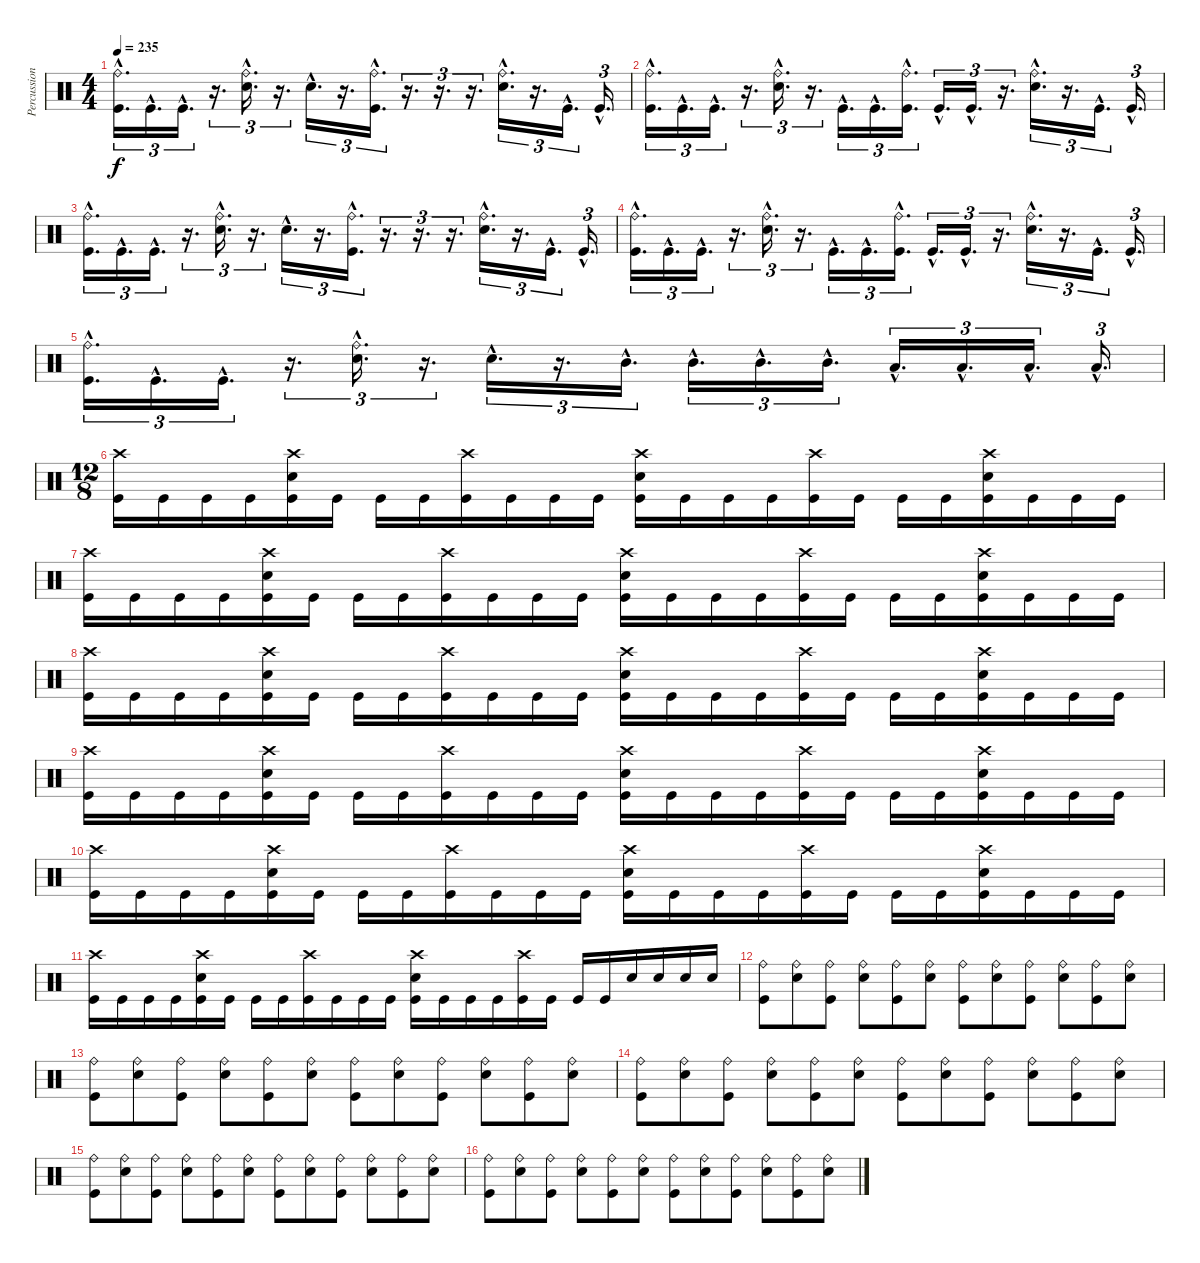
\track ("Percussion" "Percussion") {instrument percussion}
\staff {score}
\articulation defaults
\ts (4 4)
\tempo 235
\clef neutral
\ks c
("Ride (bell)"{hac} "Kick (hit)"{hac}).16{d tu (3 2) dy f} "Kick (hit)"{hac}.16{d tu (3 2)} "Kick (hit)"{hac}.16{d tu (3 2)} r.16{d tu (3 2)} ("Ride (bell)"{hac} "Snare (hit) 2"{hac}).16{d tu (3 2)} r.16{d tu (3 2)} "Snare (hit) 2"{hac}.16{d tu (3 2)} r.16{d tu (3 2)} ("Ride (bell)"{hac} "Kick (hit)"{hac}).16{d tu (3 2)} r.16{d tu (3 2)} r.16{d tu (3 2)} r.16{d tu (3 2)} ("Ride (bell)"{hac} "Snare (hit) 2"{hac}).16{d tu (3 2)} r.16{d tu (3 2)} "Kick (hit)"{hac}.16{d tu (3 2)} "Kick (hit)"{hac}.16{d tu (3 2)} |
("Ride (bell)"{hac} "Kick (hit)"{hac}).16{d tu (3 2)} "Kick (hit)"{hac}.16{d tu (3 2)} "Kick (hit)"{hac}.16{d tu (3 2)} r.16{d tu (3 2)} ("Ride (bell)"{hac} "Snare (hit) 2"{hac}).16{d tu (3 2)} r.16{d tu (3 2)} "Kick (hit)"{hac}.16{d tu (3 2)} "Kick (hit)"{hac}.16{d tu (3 2)} ("Ride (bell)"{hac} "Kick (hit)"{hac}).16{d tu (3 2)} "Kick (hit)"{hac}.16{d tu (3 2)} "Kick (hit)"{hac}.16{d tu (3 2)} r.16{d tu (3 2)} ("Ride (bell)"{hac} "Snare (hit) 2"{hac}).16{d tu (3 2)} r.16{d tu (3 2)} "Kick (hit)"{hac}.16{d tu (3 2)} "Kick (hit)"{hac}.16{d tu (3 2)} |
("Ride (bell)"{hac} "Kick (hit)"{hac}).16{d tu (3 2)} "Kick (hit)"{hac}.16{d tu (3 2)} "Kick (hit)"{hac}.16{d tu (3 2)} r.16{d tu (3 2)} ("Ride (bell)"{hac} "Snare (hit) 2"{hac}).16{d tu (3 2)} r.16{d tu (3 2)} "Snare (hit) 2"{hac}.16{d tu (3 2)} r.16{d tu (3 2)} ("Ride (bell)"{hac} "Kick (hit)"{hac}).16{d tu (3 2)} r.16{d tu (3 2)} r.16{d tu (3 2)} r.16{d tu (3 2)} ("Ride (bell)"{hac} "Snare (hit) 2"{hac}).16{d tu (3 2)} r.16{d tu (3 2)} "Kick (hit)"{hac}.16{d tu (3 2)} "Kick (hit)"{hac}.16{d tu (3 2)} |
("Ride (bell)"{hac} "Kick (hit)"{hac}).16{d tu (3 2)} "Kick (hit)"{hac}.16{d tu (3 2)} "Kick (hit)"{hac}.16{d tu (3 2)} r.16{d tu (3 2)} ("Ride (bell)"{hac} "Snare (hit) 2"{hac}).16{d tu (3 2)} r.16{d tu (3 2)} "Kick (hit)"{hac}.16{d tu (3 2)} "Kick (hit)"{hac}.16{d tu (3 2)} ("Ride (bell)"{hac} "Kick (hit)"{hac}).16{d tu (3 2)} "Kick (hit)"{hac}.16{d tu (3 2)} "Kick (hit)"{hac}.16{d tu (3 2)} r.16{d tu (3 2)} ("Ride (bell)"{hac} "Snare (hit) 2"{hac}).16{d tu (3 2)} r.16{d tu (3 2)} "Kick (hit)"{hac}.16{d tu (3 2)} "Kick (hit)"{hac}.16{d tu (3 2)} |
("Ride (bell)"{hac} "Kick (hit)"{hac}).16{d tu (3 2)} "Kick (hit)"{hac}.16{d tu (3 2)} "Kick (hit)"{hac}.16{d tu (3 2)} r.16{d tu (3 2)} ("Ride (bell)"{hac} "Snare (hit) 2"{hac}).16{d tu (3 2)} r.16{d tu (3 2)} "Snare (hit) 2"{hac}.16{d tu (3 2)} r.16{d tu (3 2)} "Mid Tom (hit)"{hac}.16{d tu (3 2)} "Mid Tom (hit)"{hac}.16{d tu (3 2)} "Mid Tom (hit)"{hac}.16{d tu (3 2)} "Mid Tom (hit)"{hac}.16{d tu (3 2)} "Low Tom (hit)"{hac}.16{d tu (3 2)} "Low Tom (hit)"{hac}.16{d tu (3 2)} "Low Tom (hit)"{hac}.16{d tu (3 2)} "Low Tom (hit)"{hac}.16{d tu (3 2)} |
\ts (12 8)
("Crash high (hit)" "Kick (hit)").16 "Kick (hit)".16 "Kick (hit)".16 "Kick (hit)".16 ("Crash high (hit)" "Snare (hit) 2" "Kick (hit)").16 "Kick (hit)".16 "Kick (hit)".16 "Kick (hit)".16 ("Crash high (hit)" "Kick (hit)").16 "Kick (hit)".16 "Kick (hit)".16 "Kick (hit)".16 ("Crash high (hit)" "Snare (hit) 2" "Kick (hit)").16 "Kick (hit)".16 "Kick (hit)".16 "Kick (hit)".16 ("Crash high (hit)" "Kick (hit)").16 "Kick (hit)".16 "Kick (hit)".16 "Kick (hit)".16 ("Crash high (hit)" "Snare (hit) 2" "Kick (hit)").16 "Kick (hit)".16 "Kick (hit)".16 "Kick (hit)".16 |
("Crash high (hit)" "Kick (hit)").16 "Kick (hit)".16 "Kick (hit)".16 "Kick (hit)".16 ("Crash high (hit)" "Snare (hit) 2" "Kick (hit)").16 "Kick (hit)".16 "Kick (hit)".16 "Kick (hit)".16 ("Crash high (hit)" "Kick (hit)").16 "Kick (hit)".16 "Kick (hit)".16 "Kick (hit)".16 ("Crash high (hit)" "Snare (hit) 2" "Kick (hit)").16 "Kick (hit)".16 "Kick (hit)".16 "Kick (hit)".16 ("Crash high (hit)" "Kick (hit)").16 "Kick (hit)".16 "Kick (hit)".16 "Kick (hit)".16 ("Crash high (hit)" "Snare (hit) 2" "Kick (hit)").16 "Kick (hit)".16 "Kick (hit)".16 "Kick (hit)".16 |
("Crash high (hit)" "Kick (hit)").16 "Kick (hit)".16 "Kick (hit)".16 "Kick (hit)".16 ("Crash high (hit)" "Snare (hit) 2" "Kick (hit)").16 "Kick (hit)".16 "Kick (hit)".16 "Kick (hit)".16 ("Crash high (hit)" "Kick (hit)").16 "Kick (hit)".16 "Kick (hit)".16 "Kick (hit)".16 ("Crash high (hit)" "Snare (hit) 2" "Kick (hit)").16 "Kick (hit)".16 "Kick (hit)".16 "Kick (hit)".16 ("Crash high (hit)" "Kick (hit)").16 "Kick (hit)".16 "Kick (hit)".16 "Kick (hit)".16 ("Crash high (hit)" "Snare (hit) 2" "Kick (hit)").16 "Kick (hit)".16 "Kick (hit)".16 "Kick (hit)".16 |
("Crash high (hit)" "Kick (hit)").16 "Kick (hit)".16 "Kick (hit)".16 "Kick (hit)".16 ("Crash high (hit)" "Snare (hit) 2" "Kick (hit)").16 "Kick (hit)".16 "Kick (hit)".16 "Kick (hit)".16 ("Crash high (hit)" "Kick (hit)").16 "Kick (hit)".16 "Kick (hit)".16 "Kick (hit)".16 ("Crash high (hit)" "Snare (hit) 2" "Kick (hit)").16 "Kick (hit)".16 "Kick (hit)".16 "Kick (hit)".16 ("Crash high (hit)" "Kick (hit)").16 "Kick (hit)".16 "Kick (hit)".16 "Kick (hit)".16 ("Crash high (hit)" "Snare (hit) 2" "Kick (hit)").16 "Kick (hit)".16 "Kick (hit)".16 "Kick (hit)".16 |
("Crash high (hit)" "Kick (hit)").16 "Kick (hit)".16 "Kick (hit)".16 "Kick (hit)".16 ("Crash high (hit)" "Snare (hit) 2" "Kick (hit)").16 "Kick (hit)".16 "Kick (hit)".16 "Kick (hit)".16 ("Crash high (hit)" "Kick (hit)").16 "Kick (hit)".16 "Kick (hit)".16 "Kick (hit)".16 ("Crash high (hit)" "Snare (hit) 2" "Kick (hit)").16 "Kick (hit)".16 "Kick (hit)".16 "Kick (hit)".16 ("Crash high (hit)" "Kick (hit)").16 "Kick (hit)".16 "Kick (hit)".16 "Kick (hit)".16 ("Crash high (hit)" "Snare (hit) 2" "Kick (hit)").16 "Kick (hit)".16 "Kick (hit)".16 "Kick (hit)".16 |
("Crash high (hit)" "Kick (hit)").16 "Kick (hit)".16 "Kick (hit)".16 "Kick (hit)".16 ("Crash high (hit)" "Snare (hit) 2" "Kick (hit)").16 "Kick (hit)".16 "Kick (hit)".16 "Kick (hit)".16 ("Crash high (hit)" "Kick (hit)").16 "Kick (hit)".16 "Kick (hit)".16 "Kick (hit)".16 ("Crash high (hit)" "Snare (hit) 2" "Kick (hit)").16 "Kick (hit)".16 "Kick (hit)".16 "Kick (hit)".16 ("Crash high (hit)" "Kick (hit)").16 "Kick (hit)".16 "Kick (hit)".16 "Kick (hit)".16 "Snare (hit) 2".16 "Snare (hit) 2".16 "Snare (hit) 2".16 "Snare (hit) 2".16 |
("Ride (bell)" "Kick (hit)").8 ("Ride (bell)" "Snare (hit) 2").8 ("Ride (bell)" "Kick (hit)").8 ("Ride (bell)" "Snare (hit) 2").8 ("Ride (bell)" "Kick (hit)").8 ("Ride (bell)" "Snare (hit) 2").8 ("Ride (bell)" "Kick (hit)").8 ("Ride (bell)" "Snare (hit) 2").8 ("Ride (bell)" "Kick (hit)").8 ("Ride (bell)" "Snare (hit) 2").8 ("Ride (bell)" "Kick (hit)").8 ("Ride (bell)" "Snare (hit) 2").8 |
("Ride (bell)" "Kick (hit)").8 ("Ride (bell)" "Snare (hit) 2").8 ("Ride (bell)" "Kick (hit)").8 ("Ride (bell)" "Snare (hit) 2").8 ("Ride (bell)" "Kick (hit)").8 ("Ride (bell)" "Snare (hit) 2").8 ("Ride (bell)" "Kick (hit)").8 ("Ride (bell)" "Snare (hit) 2").8 ("Ride (bell)" "Kick (hit)").8 ("Ride (bell)" "Snare (hit) 2").8 ("Ride (bell)" "Kick (hit)").8 ("Ride (bell)" "Snare (hit) 2").8 |
("Ride (bell)" "Kick (hit)").8 ("Ride (bell)" "Snare (hit) 2").8 ("Ride (bell)" "Kick (hit)").8 ("Ride (bell)" "Snare (hit) 2").8 ("Ride (bell)" "Kick (hit)").8 ("Ride (bell)" "Snare (hit) 2").8 ("Ride (bell)" "Kick (hit)").8 ("Ride (bell)" "Snare (hit) 2").8 ("Ride (bell)" "Kick (hit)").8 ("Ride (bell)" "Snare (hit) 2").8 ("Ride (bell)" "Kick (hit)").8 ("Ride (bell)" "Snare (hit) 2").8 |
("Ride (bell)" "Kick (hit)").8 ("Ride (bell)" "Snare (hit) 2").8 ("Ride (bell)" "Kick (hit)").8 ("Ride (bell)" "Snare (hit) 2").8 ("Ride (bell)" "Kick (hit)").8 ("Ride (bell)" "Snare (hit) 2").8 ("Ride (bell)" "Kick (hit)").8 ("Ride (bell)" "Snare (hit) 2").8 ("Ride (bell)" "Kick (hit)").8 ("Ride (bell)" "Snare (hit) 2").8 ("Ride (bell)" "Kick (hit)").8 ("Ride (bell)" "Snare (hit) 2").8 |
("Ride (bell)" "Kick (hit)").8 ("Ride (bell)" "Snare (hit) 2").8 ("Ride (bell)" "Kick (hit)").8 ("Ride (bell)" "Snare (hit) 2").8 ("Ride (bell)" "Kick (hit)").8 ("Ride (bell)" "Snare (hit) 2").8 ("Ride (bell)" "Kick (hit)").8 ("Ride (bell)" "Snare (hit) 2").8 ("Ride (bell)" "Kick (hit)").8 ("Ride (bell)" "Snare (hit) 2").8 ("Ride (bell)" "Kick (hit)").8 ("Ride (bell)" "Snare (hit) 2").8
